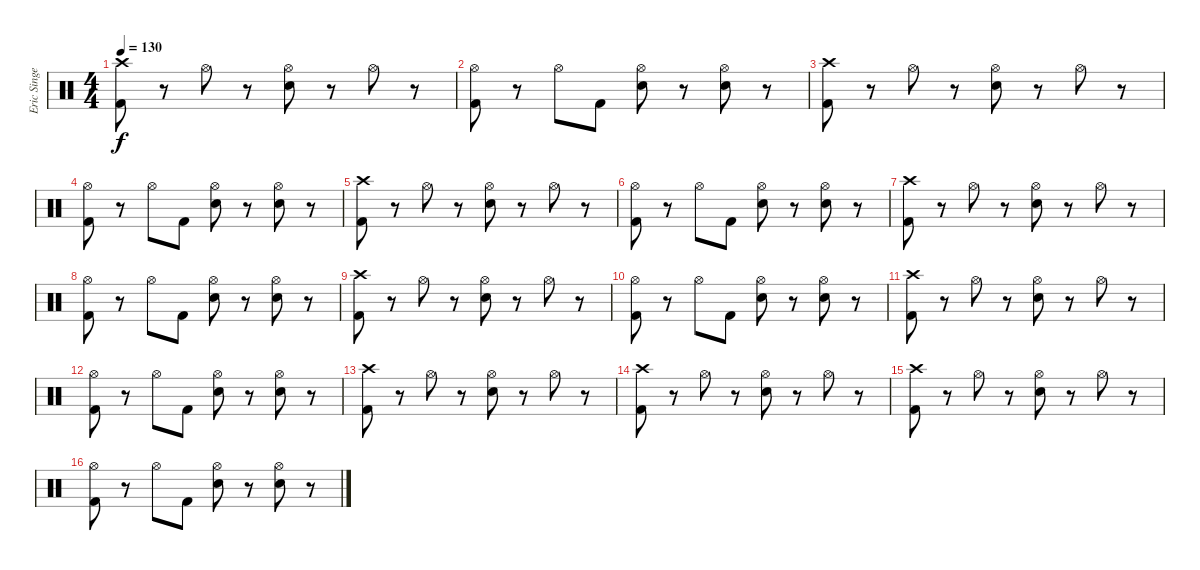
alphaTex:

\track ("Eric Singer" "Eric Singe") {instrument percussion}
\staff {score}
\articulation defaults
\ts (4 4)
\tempo 130
\clef neutral
\ks c
("Kick (hit) 2" "Crash high (hit)").8{dy f} r.8 "Hi-Hat (open)".8 r.8 ("Electric Snare (hit)" "Hi-Hat (open)").8 r.8 "Hi-Hat (open)".8 r.8 |
("Kick (hit) 2" "Hi-Hat (open)").8 r.8 "Hi-Hat (open)".8 "Kick (hit) 2".8 ("Electric Snare (hit)" "Hi-Hat (open)").8 r.8 ("Electric Snare (hit)" "Hi-Hat (open)").8 r.8 |
("Kick (hit) 2" "Crash high (hit)").8 r.8 "Hi-Hat (open)".8 r.8 ("Electric Snare (hit)" "Hi-Hat (open)").8 r.8 "Hi-Hat (open)".8 r.8 |
("Kick (hit) 2" "Hi-Hat (open)").8 r.8 "Hi-Hat (open)".8 "Kick (hit) 2".8 ("Electric Snare (hit)" "Hi-Hat (open)").8 r.8 ("Electric Snare (hit)" "Hi-Hat (open)").8 r.8 |
("Kick (hit) 2" "Crash high (hit)").8 r.8 "Hi-Hat (open)".8 r.8 ("Electric Snare (hit)" "Hi-Hat (open)").8 r.8 "Hi-Hat (open)".8 r.8 |
("Kick (hit) 2" "Hi-Hat (open)").8 r.8 "Hi-Hat (open)".8 "Kick (hit) 2".8 ("Electric Snare (hit)" "Hi-Hat (open)").8 r.8 ("Electric Snare (hit)" "Hi-Hat (open)").8 r.8 |
("Kick (hit) 2" "Crash high (hit)").8 r.8 "Hi-Hat (open)".8 r.8 ("Electric Snare (hit)" "Hi-Hat (open)").8 r.8 "Hi-Hat (open)".8 r.8 |
("Kick (hit) 2" "Hi-Hat (open)").8 r.8 "Hi-Hat (open)".8 "Kick (hit) 2".8 ("Electric Snare (hit)" "Hi-Hat (open)").8 r.8 ("Electric Snare (hit)" "Hi-Hat (open)").8 r.8 |
("Kick (hit) 2" "Crash high (hit)").8 r.8 "Hi-Hat (open)".8 r.8 ("Electric Snare (hit)" "Hi-Hat (open)").8 r.8 "Hi-Hat (open)".8 r.8 |
("Kick (hit) 2" "Hi-Hat (open)").8 r.8 "Hi-Hat (open)".8 "Kick (hit) 2".8 ("Electric Snare (hit)" "Hi-Hat (open)").8 r.8 ("Electric Snare (hit)" "Hi-Hat (open)").8 r.8 |
("Kick (hit) 2" "Crash high (hit)").8 r.8 "Hi-Hat (open)".8 r.8 ("Electric Snare (hit)" "Hi-Hat (open)").8 r.8 "Hi-Hat (open)".8 r.8 |
("Kick (hit) 2" "Hi-Hat (open)").8 r.8 "Hi-Hat (open)".8 "Kick (hit) 2".8 ("Electric Snare (hit)" "Hi-Hat (open)").8 r.8 ("Electric Snare (hit)" "Hi-Hat (open)").8 r.8 |
("Kick (hit) 2" "Crash high (hit)").8 r.8 "Hi-Hat (open)".8 r.8 ("Electric Snare (hit)" "Hi-Hat (open)").8 r.8 "Hi-Hat (open)".8 r.8 |
("Kick (hit) 2" "Crash high (hit)").8 r.8 "Hi-Hat (open)".8 r.8 ("Electric Snare (hit)" "Hi-Hat (open)").8 r.8 "Hi-Hat (open)".8 r.8 |
("Kick (hit) 2" "Crash high (hit)").8 r.8 "Hi-Hat (open)".8 r.8 ("Electric Snare (hit)" "Hi-Hat (open)").8 r.8 "Hi-Hat (open)".8 r.8 |
("Kick (hit) 2" "Hi-Hat (open)").8 r.8 "Hi-Hat (open)".8 "Kick (hit) 2".8 ("Electric Snare (hit)" "Hi-Hat (open)").8 r.8 ("Electric Snare (hit)" "Hi-Hat (open)").8 r.8
